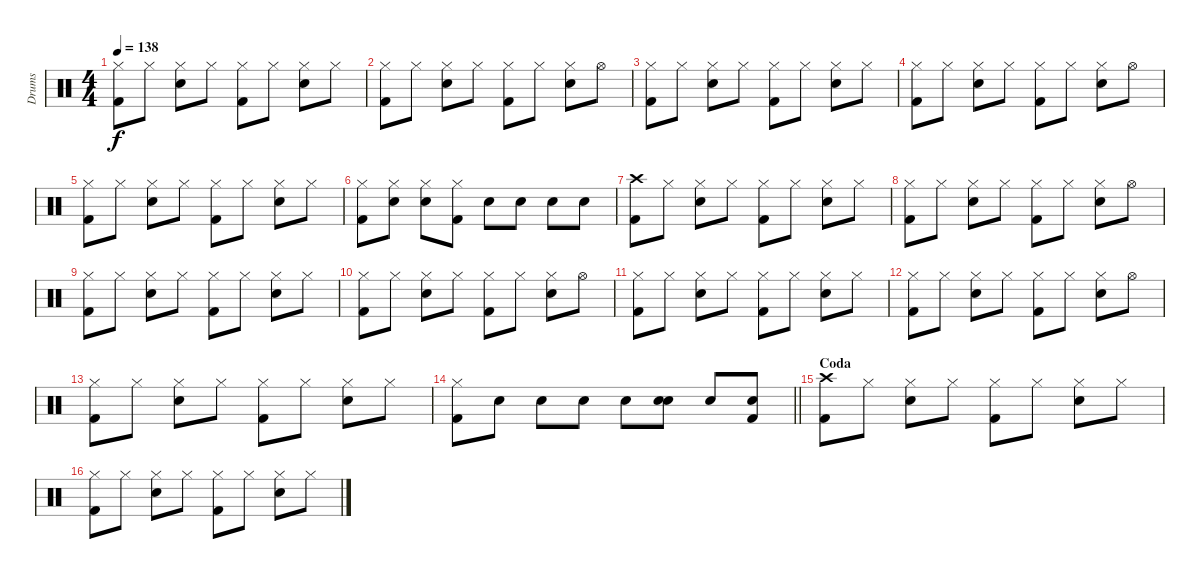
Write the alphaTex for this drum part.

\track ("Drums" "Drums") {instrument percussion}
\staff {score}
\articulation defaults
\ts (4 4)
\tempo 138
\clef neutral
\ks c
("Hi-Hat (closed)" "Kick (hit) 2").8{dy f} "Hi-Hat (closed)".8 ("Hi-Hat (closed)" "Snare (hit) 2").8 "Hi-Hat (closed)".8 ("Hi-Hat (closed)" "Kick (hit) 2").8 "Hi-Hat (closed)".8 ("Hi-Hat (closed)" "Snare (hit) 2").8 "Hi-Hat (closed)".8 |
("Hi-Hat (closed)" "Kick (hit) 2").8 "Hi-Hat (closed)".8 ("Hi-Hat (closed)" "Snare (hit) 2").8 "Hi-Hat (closed)".8 ("Hi-Hat (closed)" "Kick (hit) 2").8 "Hi-Hat (closed)".8 ("Hi-Hat (closed)" "Snare (hit) 2").8 "Hi-Hat (open)".8 |
("Hi-Hat (closed)" "Kick (hit) 2").8 "Hi-Hat (closed)".8 ("Hi-Hat (closed)" "Snare (hit) 2").8 "Hi-Hat (closed)".8 ("Hi-Hat (closed)" "Kick (hit) 2").8 "Hi-Hat (closed)".8 ("Hi-Hat (closed)" "Snare (hit) 2").8 "Hi-Hat (closed)".8 |
("Hi-Hat (closed)" "Kick (hit) 2").8 "Hi-Hat (closed)".8 ("Hi-Hat (closed)" "Snare (hit) 2").8 "Hi-Hat (closed)".8 ("Hi-Hat (closed)" "Kick (hit) 2").8 "Hi-Hat (closed)".8 ("Hi-Hat (closed)" "Snare (hit) 2").8 "Hi-Hat (open)".8 |
("Hi-Hat (closed)" "Kick (hit) 2").8 "Hi-Hat (closed)".8 ("Hi-Hat (closed)" "Snare (hit) 2").8 "Hi-Hat (closed)".8 ("Hi-Hat (closed)" "Kick (hit) 2").8 "Hi-Hat (closed)".8 ("Hi-Hat (closed)" "Snare (hit) 2").8 "Hi-Hat (closed)".8 |
("Hi-Hat (closed)" "Kick (hit) 2").8 ("Hi-Hat (closed)" "Snare (hit) 2").8 ("Hi-Hat (closed)" "Snare (hit) 2").8 ("Hi-Hat (closed)" "Kick (hit) 2").8 "Snare (hit) 2".8 "Snare (hit) 2".8 "Snare (hit) 2".8 "Snare (hit) 2".8 |
("Crash high (hit)" "Kick (hit) 2").8 "Hi-Hat (closed)".8 ("Hi-Hat (closed)" "Snare (hit) 2").8 "Hi-Hat (closed)".8 ("Hi-Hat (closed)" "Kick (hit) 2").8 "Hi-Hat (closed)".8 ("Hi-Hat (closed)" "Snare (hit) 2").8 "Hi-Hat (closed)".8 |
("Hi-Hat (closed)" "Kick (hit) 2").8 "Hi-Hat (closed)".8 ("Hi-Hat (closed)" "Snare (hit) 2").8 "Hi-Hat (closed)".8 ("Hi-Hat (closed)" "Kick (hit) 2").8 "Hi-Hat (closed)".8 ("Hi-Hat (closed)" "Snare (hit) 2").8 "Hi-Hat (open)".8 |
("Hi-Hat (closed)" "Kick (hit) 2").8 "Hi-Hat (closed)".8 ("Hi-Hat (closed)" "Snare (hit) 2").8 "Hi-Hat (closed)".8 ("Hi-Hat (closed)" "Kick (hit) 2").8 "Hi-Hat (closed)".8 ("Hi-Hat (closed)" "Snare (hit) 2").8 "Hi-Hat (closed)".8 |
("Hi-Hat (closed)" "Kick (hit) 2").8 "Hi-Hat (closed)".8 ("Hi-Hat (closed)" "Snare (hit) 2").8 "Hi-Hat (closed)".8 ("Hi-Hat (closed)" "Kick (hit) 2").8 "Hi-Hat (closed)".8 ("Hi-Hat (closed)" "Snare (hit) 2").8 "Hi-Hat (open)".8 |
("Hi-Hat (closed)" "Kick (hit) 2").8 "Hi-Hat (closed)".8 ("Hi-Hat (closed)" "Snare (hit) 2").8 "Hi-Hat (closed)".8 ("Hi-Hat (closed)" "Kick (hit) 2").8 "Hi-Hat (closed)".8 ("Hi-Hat (closed)" "Snare (hit) 2").8 "Hi-Hat (closed)".8 |
("Hi-Hat (closed)" "Kick (hit) 2").8 "Hi-Hat (closed)".8 ("Hi-Hat (closed)" "Snare (hit) 2").8 "Hi-Hat (closed)".8 ("Hi-Hat (closed)" "Kick (hit) 2").8 "Hi-Hat (closed)".8 ("Hi-Hat (closed)" "Snare (hit) 2").8 "Hi-Hat (open)".8 |
("Hi-Hat (closed)" "Kick (hit) 2").8 "Hi-Hat (closed)".8 ("Hi-Hat (closed)" "Snare (hit) 2").8 "Hi-Hat (closed)".8 ("Hi-Hat (closed)" "Kick (hit) 2").8 "Hi-Hat (closed)".8 ("Hi-Hat (closed)" "Snare (hit) 2").8 "Hi-Hat (closed)".8 |
\barLineRight lightlight
("Hi-Hat (closed)" "Kick (hit) 2").8 "Snare (hit) 2".8 "Snare (hit) 2".8 "Snare (hit) 2".8 "Snare (hit) 2".8 ("Snare (hit) 2" "Snare (hit) 2").8 "Snare (hit) 2".8 ("Snare (hit) 2" "Kick (hit) 2").8 |
\section ("" "Coda")
("Crash high (hit)" "Kick (hit) 2").8 "Hi-Hat (closed)".8 ("Hi-Hat (closed)" "Snare (hit) 2").8 "Hi-Hat (closed)".8 ("Hi-Hat (closed)" "Kick (hit) 2").8 "Hi-Hat (closed)".8 ("Hi-Hat (closed)" "Snare (hit) 2").8 "Hi-Hat (closed)".8 |
("Hi-Hat (closed)" "Kick (hit) 2").8 "Hi-Hat (closed)".8 ("Hi-Hat (closed)" "Snare (hit) 2").8 "Hi-Hat (closed)".8 ("Hi-Hat (closed)" "Kick (hit) 2").8 "Hi-Hat (closed)".8 ("Hi-Hat (closed)" "Snare (hit) 2").8 "Hi-Hat (closed)".8
